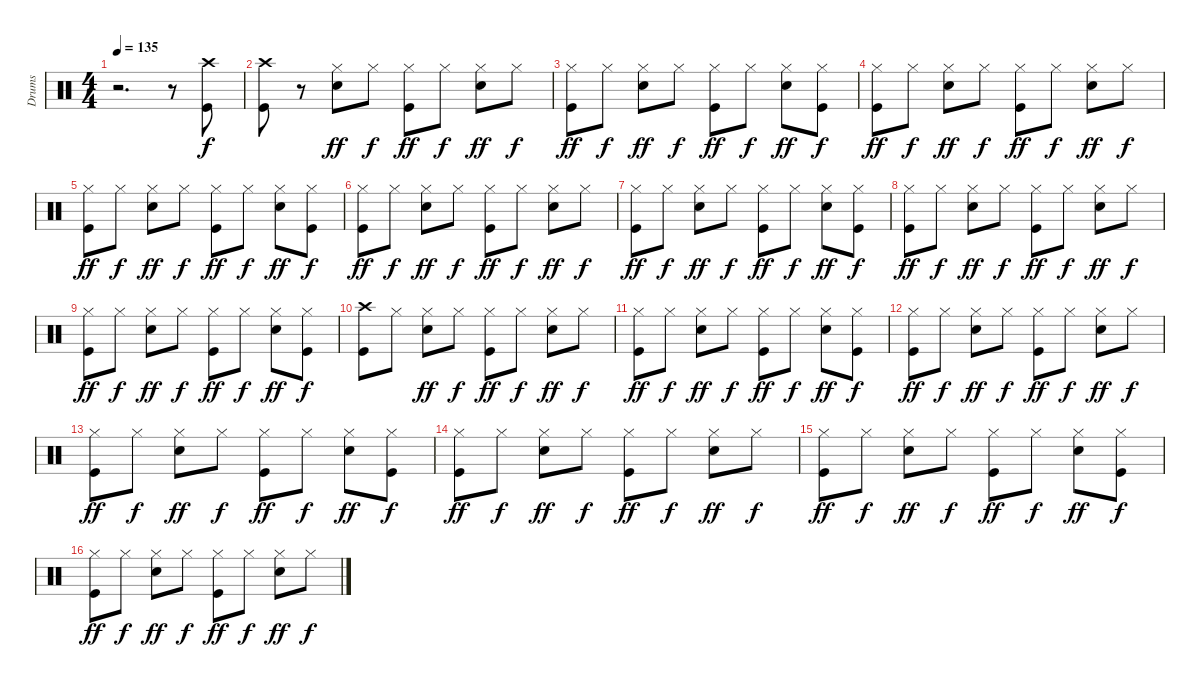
\track ("Drums" "Drums") {instrument percussion}
\staff {score}
\articulation defaults
\ts (4 4)
\tempo 135
\clef neutral
\ks c
r.2{d dy f} r.8 ("Crash high (hit)" "Kick (hit)").8 |
("Crash high (hit)" "Kick (hit)").8 r.8 ("Hi-Hat (closed)" "Snare (hit) 2").8{dy ff} "Hi-Hat (closed)".8{dy f} ("Hi-Hat (closed)" "Kick (hit)").8{dy ff} "Hi-Hat (closed)".8{dy f} ("Hi-Hat (closed)" "Snare (hit) 2").8{dy ff} "Hi-Hat (closed)".8{dy f} |
("Hi-Hat (closed)" "Kick (hit)").8{dy ff} "Hi-Hat (closed)".8{dy f} ("Hi-Hat (closed)" "Snare (hit) 2").8{dy ff} "Hi-Hat (closed)".8{dy f} ("Hi-Hat (closed)" "Kick (hit)").8{dy ff} "Hi-Hat (closed)".8{dy f} ("Hi-Hat (closed)" "Snare (hit) 2").8{dy ff} ("Hi-Hat (closed)" "Kick (hit)").8{dy f} |
("Hi-Hat (closed)" "Kick (hit)").8{dy ff} "Hi-Hat (closed)".8{dy f} ("Hi-Hat (closed)" "Snare (hit) 2").8{dy ff} "Hi-Hat (closed)".8{dy f} ("Hi-Hat (closed)" "Kick (hit)").8{dy ff} "Hi-Hat (closed)".8{dy f} ("Hi-Hat (closed)" "Snare (hit) 2").8{dy ff} "Hi-Hat (closed)".8{dy f} |
("Hi-Hat (closed)" "Kick (hit)").8{dy ff} "Hi-Hat (closed)".8{dy f} ("Hi-Hat (closed)" "Snare (hit) 2").8{dy ff} "Hi-Hat (closed)".8{dy f} ("Hi-Hat (closed)" "Kick (hit)").8{dy ff} "Hi-Hat (closed)".8{dy f} ("Hi-Hat (closed)" "Snare (hit) 2").8{dy ff} ("Hi-Hat (closed)" "Kick (hit)").8{dy f} |
("Hi-Hat (closed)" "Kick (hit)").8{dy ff} "Hi-Hat (closed)".8{dy f} ("Hi-Hat (closed)" "Snare (hit) 2").8{dy ff} "Hi-Hat (closed)".8{dy f} ("Hi-Hat (closed)" "Kick (hit)").8{dy ff} "Hi-Hat (closed)".8{dy f} ("Hi-Hat (closed)" "Snare (hit) 2").8{dy ff} "Hi-Hat (closed)".8{dy f} |
("Hi-Hat (closed)" "Kick (hit)").8{dy ff} "Hi-Hat (closed)".8{dy f} ("Hi-Hat (closed)" "Snare (hit) 2").8{dy ff} "Hi-Hat (closed)".8{dy f} ("Hi-Hat (closed)" "Kick (hit)").8{dy ff} "Hi-Hat (closed)".8{dy f} ("Hi-Hat (closed)" "Snare (hit) 2").8{dy ff} ("Hi-Hat (closed)" "Kick (hit)").8{dy f} |
("Hi-Hat (closed)" "Kick (hit)").8{dy ff} "Hi-Hat (closed)".8{dy f} ("Hi-Hat (closed)" "Snare (hit) 2").8{dy ff} "Hi-Hat (closed)".8{dy f} ("Hi-Hat (closed)" "Kick (hit)").8{dy ff} "Hi-Hat (closed)".8{dy f} ("Hi-Hat (closed)" "Snare (hit) 2").8{dy ff} "Hi-Hat (closed)".8{dy f} |
("Hi-Hat (closed)" "Kick (hit)").8{dy ff} "Hi-Hat (closed)".8{dy f} ("Hi-Hat (closed)" "Snare (hit) 2").8{dy ff} "Hi-Hat (closed)".8{dy f} ("Hi-Hat (closed)" "Kick (hit)").8{dy ff} "Hi-Hat (closed)".8{dy f} ("Hi-Hat (closed)" "Snare (hit) 2").8{dy ff} ("Hi-Hat (closed)" "Kick (hit)").8{dy f} |
("Crash high (hit)" "Kick (hit)").8 "Hi-Hat (closed)".8 ("Hi-Hat (closed)" "Snare (hit) 2").8{dy ff} "Hi-Hat (closed)".8{dy f} ("Hi-Hat (closed)" "Kick (hit)").8{dy ff} "Hi-Hat (closed)".8{dy f} ("Hi-Hat (closed)" "Snare (hit) 2").8{dy ff} "Hi-Hat (closed)".8{dy f} |
("Hi-Hat (closed)" "Kick (hit)").8{dy ff} "Hi-Hat (closed)".8{dy f} ("Hi-Hat (closed)" "Snare (hit) 2").8{dy ff} "Hi-Hat (closed)".8{dy f} ("Hi-Hat (closed)" "Kick (hit)").8{dy ff} "Hi-Hat (closed)".8{dy f} ("Hi-Hat (closed)" "Snare (hit) 2").8{dy ff} ("Hi-Hat (closed)" "Kick (hit)").8{dy f} |
("Hi-Hat (closed)" "Kick (hit)").8{dy ff} "Hi-Hat (closed)".8{dy f} ("Hi-Hat (closed)" "Snare (hit) 2").8{dy ff} "Hi-Hat (closed)".8{dy f} ("Hi-Hat (closed)" "Kick (hit)").8{dy ff} "Hi-Hat (closed)".8{dy f} ("Hi-Hat (closed)" "Snare (hit) 2").8{dy ff} "Hi-Hat (closed)".8{dy f} |
("Hi-Hat (closed)" "Kick (hit)").8{dy ff} "Hi-Hat (closed)".8{dy f} ("Hi-Hat (closed)" "Snare (hit) 2").8{dy ff} "Hi-Hat (closed)".8{dy f} ("Hi-Hat (closed)" "Kick (hit)").8{dy ff} "Hi-Hat (closed)".8{dy f} ("Hi-Hat (closed)" "Snare (hit) 2").8{dy ff} ("Hi-Hat (closed)" "Kick (hit)").8{dy f} |
("Hi-Hat (closed)" "Kick (hit)").8{dy ff} "Hi-Hat (closed)".8{dy f} ("Hi-Hat (closed)" "Snare (hit) 2").8{dy ff} "Hi-Hat (closed)".8{dy f} ("Hi-Hat (closed)" "Kick (hit)").8{dy ff} "Hi-Hat (closed)".8{dy f} ("Hi-Hat (closed)" "Snare (hit) 2").8{dy ff} "Hi-Hat (closed)".8{dy f} |
("Hi-Hat (closed)" "Kick (hit)").8{dy ff} "Hi-Hat (closed)".8{dy f} ("Hi-Hat (closed)" "Snare (hit) 2").8{dy ff} "Hi-Hat (closed)".8{dy f} ("Hi-Hat (closed)" "Kick (hit)").8{dy ff} "Hi-Hat (closed)".8{dy f} ("Hi-Hat (closed)" "Snare (hit) 2").8{dy ff} ("Hi-Hat (closed)" "Kick (hit)").8{dy f} |
("Hi-Hat (closed)" "Kick (hit)").8{dy ff} "Hi-Hat (closed)".8{dy f} ("Hi-Hat (closed)" "Snare (hit) 2").8{dy ff} "Hi-Hat (closed)".8{dy f} ("Hi-Hat (closed)" "Kick (hit)").8{dy ff} "Hi-Hat (closed)".8{dy f} ("Hi-Hat (closed)" "Snare (hit) 2").8{dy ff} "Hi-Hat (closed)".8{dy f}
